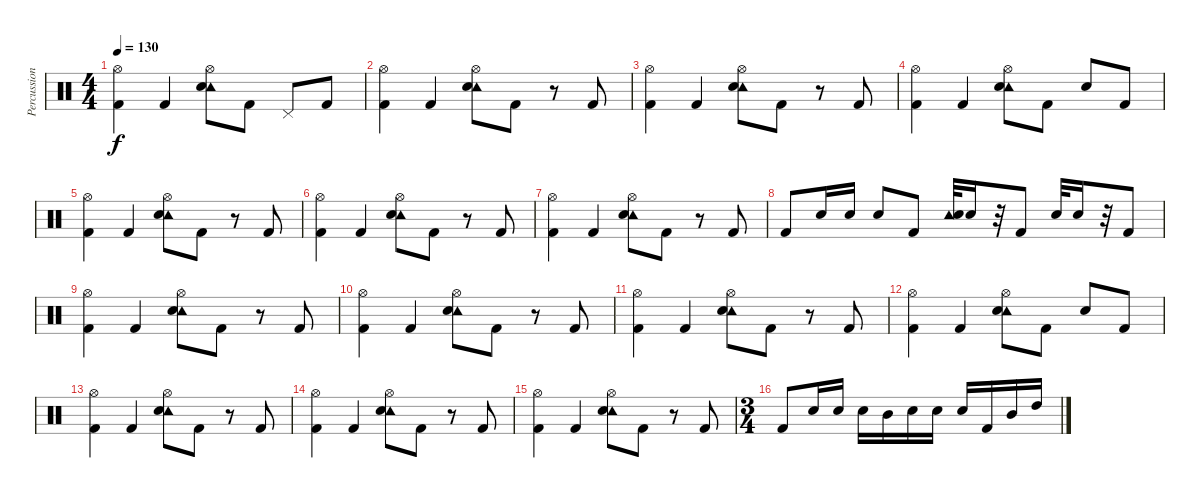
\track ("Percussion" "Percussion") {instrument percussion}
\staff {score}
\articulation defaults
\ts (4 4)
\tempo 130
\clef neutral
\ks c
("Hi-Hat (open)" "Kick (hit) 2").4{dy f} "Kick (hit) 2".4 ("Hi-Hat (open)" "Tambourine (hit)" "Snare (hit) 2").8 "Kick (hit) 2".8 "Pedal Hi-Hat (hit)".8 "Kick (hit) 2".8 |
("Hi-Hat (open)" "Kick (hit) 2").4 "Kick (hit) 2".4 ("Hi-Hat (open)" "Tambourine (hit)" "Snare (hit) 2").8 "Kick (hit) 2".8 r.8 "Kick (hit) 2".8 |
("Hi-Hat (open)" "Kick (hit) 2").4 "Kick (hit) 2".4 ("Hi-Hat (open)" "Tambourine (hit)" "Snare (hit) 2").8 "Kick (hit) 2".8 r.8 "Kick (hit) 2".8 |
("Hi-Hat (open)" "Kick (hit) 2").4 "Kick (hit) 2".4 ("Hi-Hat (open)" "Tambourine (hit)" "Snare (hit) 2").8 "Kick (hit) 2".8 "Snare (hit) 2".8 "Kick (hit) 2".8 |
("Hi-Hat (open)" "Kick (hit) 2").4 "Kick (hit) 2".4 ("Hi-Hat (open)" "Tambourine (hit)" "Snare (hit) 2").8 "Kick (hit) 2".8 r.8 "Kick (hit) 2".8 |
("Hi-Hat (open)" "Kick (hit) 2").4 "Kick (hit) 2".4 ("Hi-Hat (open)" "Tambourine (hit)" "Snare (hit) 2").8 "Kick (hit) 2".8 r.8 "Kick (hit) 2".8 |
("Hi-Hat (open)" "Kick (hit) 2").4 "Kick (hit) 2".4 ("Hi-Hat (open)" "Tambourine (hit)" "Snare (hit) 2").8 "Kick (hit) 2".8 r.8 "Kick (hit) 2".8 |
"Kick (hit) 2".8 "Snare (hit) 2".16 "Snare (hit) 2".16 "Snare (hit) 2".8 "Kick (hit) 2".8 ("Tambourine (hit)" "Snare (hit) 2").32 "Snare (hit) 2".16 r.32 "Kick (hit) 2".8 "Snare (hit) 2".32 "Snare (hit) 2".16 r.32 "Kick (hit) 2".8 |
("Hi-Hat (open)" "Kick (hit) 2").4 "Kick (hit) 2".4 ("Hi-Hat (open)" "Tambourine (hit)" "Snare (hit) 2").8 "Kick (hit) 2".8 r.8 "Kick (hit) 2".8 |
("Hi-Hat (open)" "Kick (hit) 2").4 "Kick (hit) 2".4 ("Hi-Hat (open)" "Tambourine (hit)" "Snare (hit) 2").8 "Kick (hit) 2".8 r.8 "Kick (hit) 2".8 |
("Hi-Hat (open)" "Kick (hit) 2").4 "Kick (hit) 2".4 ("Hi-Hat (open)" "Tambourine (hit)" "Snare (hit) 2").8 "Kick (hit) 2".8 r.8 "Kick (hit) 2".8 |
("Hi-Hat (open)" "Kick (hit) 2").4 "Kick (hit) 2".4 ("Hi-Hat (open)" "Tambourine (hit)" "Snare (hit) 2").8 "Kick (hit) 2".8 "Snare (hit) 2".8 "Kick (hit) 2".8 |
("Hi-Hat (open)" "Kick (hit) 2").4 "Kick (hit) 2".4 ("Hi-Hat (open)" "Tambourine (hit)" "Snare (hit) 2").8 "Kick (hit) 2".8 r.8 "Kick (hit) 2".8 |
("Hi-Hat (open)" "Kick (hit) 2").4 "Kick (hit) 2".4 ("Hi-Hat (open)" "Tambourine (hit)" "Snare (hit) 2").8 "Kick (hit) 2".8 r.8 "Kick (hit) 2".8 |
("Hi-Hat (open)" "Kick (hit) 2").4 "Kick (hit) 2".4 ("Hi-Hat (open)" "Tambourine (hit)" "Snare (hit) 2").8 "Kick (hit) 2".8 r.8 "Kick (hit) 2".8 |
\ts (3 4)
"Kick (hit) 2".8 "Snare (hit) 2".16 "Snare (hit) 2".16 "Snare (hit) 2".16 "Mid Tom (hit)".16 "Snare (hit) 2".16 "Snare (hit) 2".16 "Snare (hit) 2".16 "Kick (hit) 2".16 "Mid Tom (hit)".16 "High Tom (hit)".16
